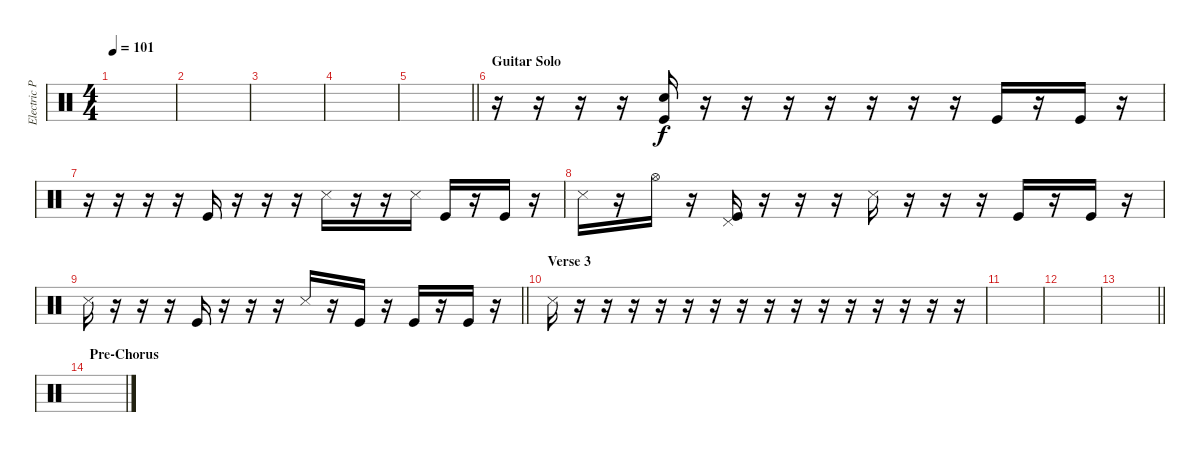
\track ("Electric Percussion" "Electric P") {instrument percussion}
\staff {score}
\articulation defaults
\ts (4 4)
\tempo 101
\clef neutral
\ks c
|
|
|
|
\barLineRight lightlight
|
\section ("" "Guitar Solo")
r.16 r.16 r.16 r.16 ("Metronome (bell)" "Kick (hit)").16 r.16 r.16 r.16 r.16 r.16 r.16 r.16 "Kick (hit)".16 r.16 "Kick (hit)".16 r.16 |
r.16 r.16 r.16 r.16 "Kick (hit)".16 r.16 r.16 r.16 "Snare (side stick) 3".16 r.16 r.16 "Snare (side stick) 3".16 "Kick (hit)".16 r.16 "Kick (hit)".16 r.16 |
"Snare (side stick) 3".16 r.16 "Hi-Hat (open)".16 r.16 ("Pedal Hi-Hat (hit)" "Kick (hit)").16 r.16 r.16 r.16 "Snare (side stick) 3".16 r.16 r.16 r.16 "Kick (hit)".16 r.16 "Kick (hit)".16 r.16 |
\barLineRight lightlight "Snare (side stick) 3".16
r.16 r.16 r.16 "Kick (hit)".16 r.16 r.16 r.16 "Snare (side stick) 3".16 r.16 "Kick (hit)".16 r.16 "Kick (hit)".16 r.16 "Kick (hit)".16 r.16 |
\section ("" "Verse 3")
"Snare (side stick) 3".16 r.16 r.16 r.16 r.16 r.16 r.16 r.16 r.16 r.16 r.16 r.16 r.16 r.16 r.16 r.16 |
|
|
\barLineRight lightlight
|
\section ("" "Pre-Chorus")
